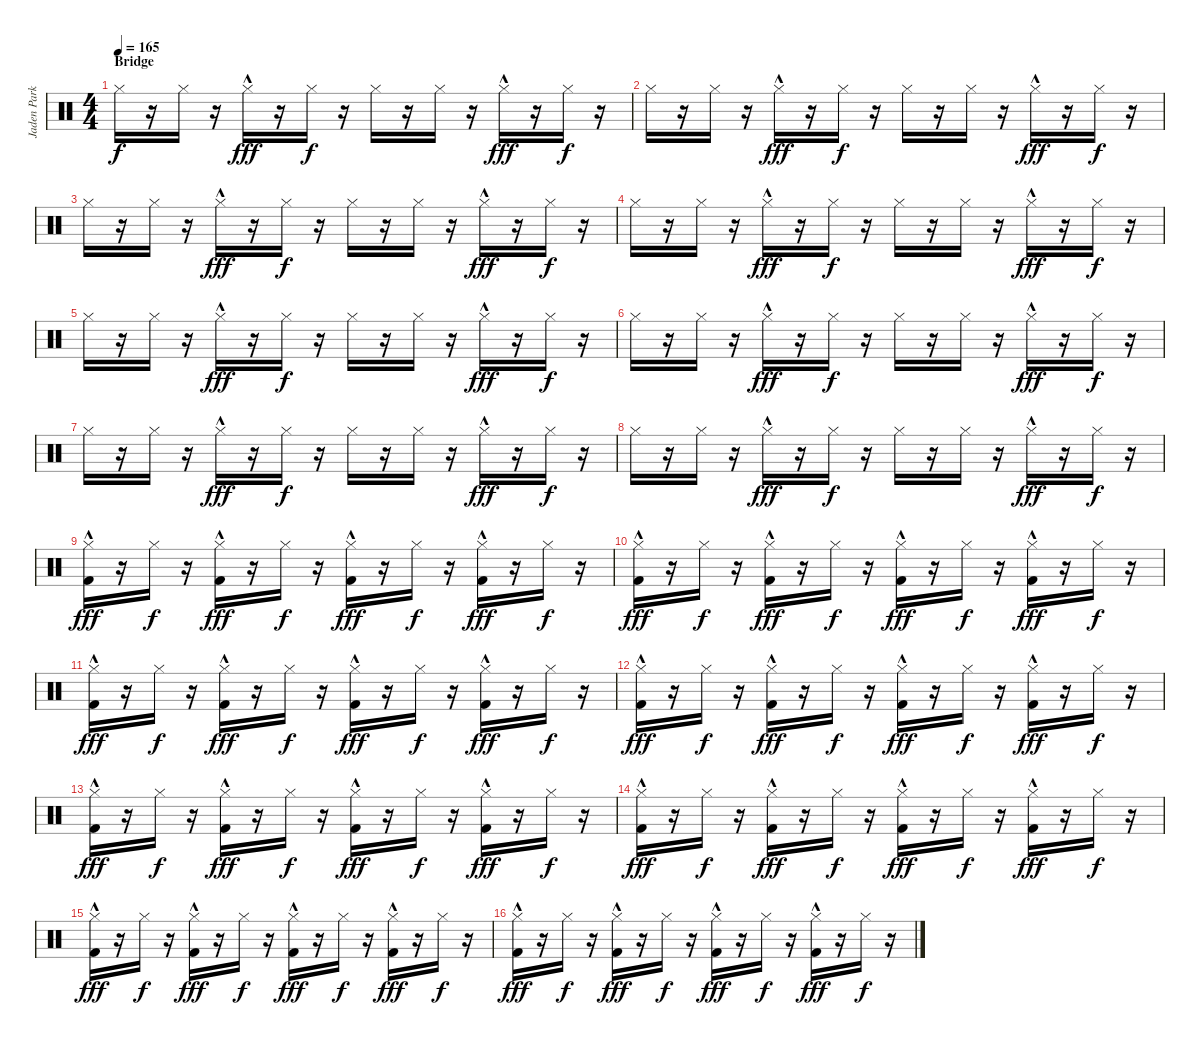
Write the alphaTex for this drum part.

\track ("Jaden Parkes" "Jaden Park") {instrument percussion}
\staff {score}
\articulation defaults
\ts (4 4)
\section ("" "Bridge")
\tempo 165
\clef neutral
\ks c "Hi-Hat (closed)".16{dy f volume 6}
r.16 "Hi-Hat (closed)".16 r.16 "Hi-Hat (closed)"{hac}.16{dy fff} r.16 "Hi-Hat (closed)".16{dy f} r.16 "Hi-Hat (closed)".16 r.16 "Hi-Hat (closed)".16 r.16 "Hi-Hat (closed)"{hac}.16{dy fff} r.16 "Hi-Hat (closed)".16{dy f} r.16 |
"Hi-Hat (closed)".16 r.16 "Hi-Hat (closed)".16 r.16 "Hi-Hat (closed)"{hac}.16{dy fff} r.16 "Hi-Hat (closed)".16{dy f} r.16 "Hi-Hat (closed)".16 r.16 "Hi-Hat (closed)".16 r.16 "Hi-Hat (closed)"{hac}.16{dy fff} r.16 "Hi-Hat (closed)".16{dy f} r.16 |
"Hi-Hat (closed)".16 r.16 "Hi-Hat (closed)".16 r.16 "Hi-Hat (closed)"{hac}.16{dy fff} r.16 "Hi-Hat (closed)".16{dy f} r.16 "Hi-Hat (closed)".16 r.16 "Hi-Hat (closed)".16 r.16 "Hi-Hat (closed)"{hac}.16{dy fff} r.16 "Hi-Hat (closed)".16{dy f} r.16 |
"Hi-Hat (closed)".16 r.16 "Hi-Hat (closed)".16 r.16 "Hi-Hat (closed)"{hac}.16{dy fff} r.16 "Hi-Hat (closed)".16{dy f} r.16 "Hi-Hat (closed)".16 r.16 "Hi-Hat (closed)".16 r.16 "Hi-Hat (closed)"{hac}.16{dy fff} r.16 "Hi-Hat (closed)".16{dy f} r.16 |
"Hi-Hat (closed)".16 r.16 "Hi-Hat (closed)".16 r.16 "Hi-Hat (closed)"{hac}.16{dy fff} r.16 "Hi-Hat (closed)".16{dy f} r.16 "Hi-Hat (closed)".16 r.16 "Hi-Hat (closed)".16 r.16 "Hi-Hat (closed)"{hac}.16{dy fff} r.16 "Hi-Hat (closed)".16{dy f} r.16 |
"Hi-Hat (closed)".16 r.16 "Hi-Hat (closed)".16 r.16 "Hi-Hat (closed)"{hac}.16{dy fff} r.16 "Hi-Hat (closed)".16{dy f} r.16 "Hi-Hat (closed)".16 r.16 "Hi-Hat (closed)".16 r.16 "Hi-Hat (closed)"{hac}.16{dy fff} r.16 "Hi-Hat (closed)".16{dy f} r.16 |
"Hi-Hat (closed)".16 r.16 "Hi-Hat (closed)".16 r.16 "Hi-Hat (closed)"{hac}.16{dy fff} r.16 "Hi-Hat (closed)".16{dy f} r.16 "Hi-Hat (closed)".16 r.16 "Hi-Hat (closed)".16 r.16 "Hi-Hat (closed)"{hac}.16{dy fff} r.16 "Hi-Hat (closed)".16{dy f} r.16 |
"Hi-Hat (closed)".16 r.16 "Hi-Hat (closed)".16 r.16 "Hi-Hat (closed)"{hac}.16{dy fff} r.16 "Hi-Hat (closed)".16{dy f} r.16 "Hi-Hat (closed)".16 r.16 "Hi-Hat (closed)".16 r.16 "Hi-Hat (closed)"{hac}.16{dy fff} r.16 "Hi-Hat (closed)".16{dy f} r.16 |
("Hi-Hat (closed)" "Kick (hit) 2"{hac}).16{dy fff} r.16 "Hi-Hat (closed)".16{dy f} r.16 ("Hi-Hat (closed)"{hac} "Kick (hit) 2"{hac}).16{dy fff} r.16 "Hi-Hat (closed)".16{dy f} r.16 ("Hi-Hat (closed)" "Kick (hit) 2"{hac}).16{dy fff} r.16 "Hi-Hat (closed)".16{dy f} r.16 ("Hi-Hat (closed)"{hac} "Kick (hit) 2"{hac}).16{dy fff} r.16 "Hi-Hat (closed)".16{dy f} r.16 |
("Hi-Hat (closed)" "Kick (hit) 2"{hac}).16{dy fff} r.16 "Hi-Hat (closed)".16{dy f} r.16 ("Hi-Hat (closed)"{hac} "Kick (hit) 2"{hac}).16{dy fff} r.16 "Hi-Hat (closed)".16{dy f} r.16 ("Hi-Hat (closed)" "Kick (hit) 2"{hac}).16{dy fff} r.16 "Hi-Hat (closed)".16{dy f} r.16 ("Hi-Hat (closed)"{hac} "Kick (hit) 2"{hac}).16{dy fff} r.16 "Hi-Hat (closed)".16{dy f} r.16 |
("Hi-Hat (closed)" "Kick (hit) 2"{hac}).16{dy fff} r.16 "Hi-Hat (closed)".16{dy f} r.16 ("Hi-Hat (closed)"{hac} "Kick (hit) 2"{hac}).16{dy fff} r.16 "Hi-Hat (closed)".16{dy f} r.16 ("Hi-Hat (closed)" "Kick (hit) 2"{hac}).16{dy fff} r.16 "Hi-Hat (closed)".16{dy f} r.16 ("Hi-Hat (closed)"{hac} "Kick (hit) 2"{hac}).16{dy fff} r.16 "Hi-Hat (closed)".16{dy f} r.16 |
("Hi-Hat (closed)" "Kick (hit) 2"{hac}).16{dy fff} r.16 "Hi-Hat (closed)".16{dy f} r.16 ("Hi-Hat (closed)"{hac} "Kick (hit) 2"{hac}).16{dy fff} r.16 "Hi-Hat (closed)".16{dy f} r.16 ("Hi-Hat (closed)" "Kick (hit) 2"{hac}).16{dy fff} r.16 "Hi-Hat (closed)".16{dy f} r.16 ("Hi-Hat (closed)"{hac} "Kick (hit) 2"{hac}).16{dy fff} r.16 "Hi-Hat (closed)".16{dy f} r.16 |
("Hi-Hat (closed)" "Kick (hit) 2"{hac}).16{dy fff} r.16 "Hi-Hat (closed)".16{dy f} r.16 ("Hi-Hat (closed)"{hac} "Kick (hit) 2"{hac}).16{dy fff} r.16 "Hi-Hat (closed)".16{dy f} r.16 ("Hi-Hat (closed)" "Kick (hit) 2"{hac}).16{dy fff} r.16 "Hi-Hat (closed)".16{dy f} r.16 ("Hi-Hat (closed)"{hac} "Kick (hit) 2"{hac}).16{dy fff} r.16 "Hi-Hat (closed)".16{dy f} r.16 |
("Hi-Hat (closed)" "Kick (hit) 2"{hac}).16{dy fff} r.16 "Hi-Hat (closed)".16{dy f} r.16 ("Hi-Hat (closed)"{hac} "Kick (hit) 2"{hac}).16{dy fff} r.16 "Hi-Hat (closed)".16{dy f} r.16 ("Hi-Hat (closed)" "Kick (hit) 2"{hac}).16{dy fff} r.16 "Hi-Hat (closed)".16{dy f} r.16 ("Hi-Hat (closed)"{hac} "Kick (hit) 2"{hac}).16{dy fff} r.16 "Hi-Hat (closed)".16{dy f} r.16 |
("Hi-Hat (closed)" "Kick (hit) 2"{hac}).16{dy fff} r.16 "Hi-Hat (closed)".16{dy f} r.16 ("Hi-Hat (closed)"{hac} "Kick (hit) 2"{hac}).16{dy fff} r.16 "Hi-Hat (closed)".16{dy f} r.16 ("Hi-Hat (closed)" "Kick (hit) 2"{hac}).16{dy fff} r.16 "Hi-Hat (closed)".16{dy f} r.16 ("Hi-Hat (closed)"{hac} "Kick (hit) 2"{hac}).16{dy fff} r.16 "Hi-Hat (closed)".16{dy f} r.16 |
("Hi-Hat (closed)" "Kick (hit) 2"{hac}).16{dy fff} r.16 "Hi-Hat (closed)".16{dy f} r.16 ("Hi-Hat (closed)"{hac} "Kick (hit) 2"{hac}).16{dy fff} r.16 "Hi-Hat (closed)".16{dy f} r.16 ("Hi-Hat (closed)" "Kick (hit) 2"{hac}).16{dy fff} r.16 "Hi-Hat (closed)".16{dy f} r.16 ("Hi-Hat (closed)"{hac} "Kick (hit) 2"{hac}).16{dy fff} r.16 "Hi-Hat (closed)".16{dy f} r.16
